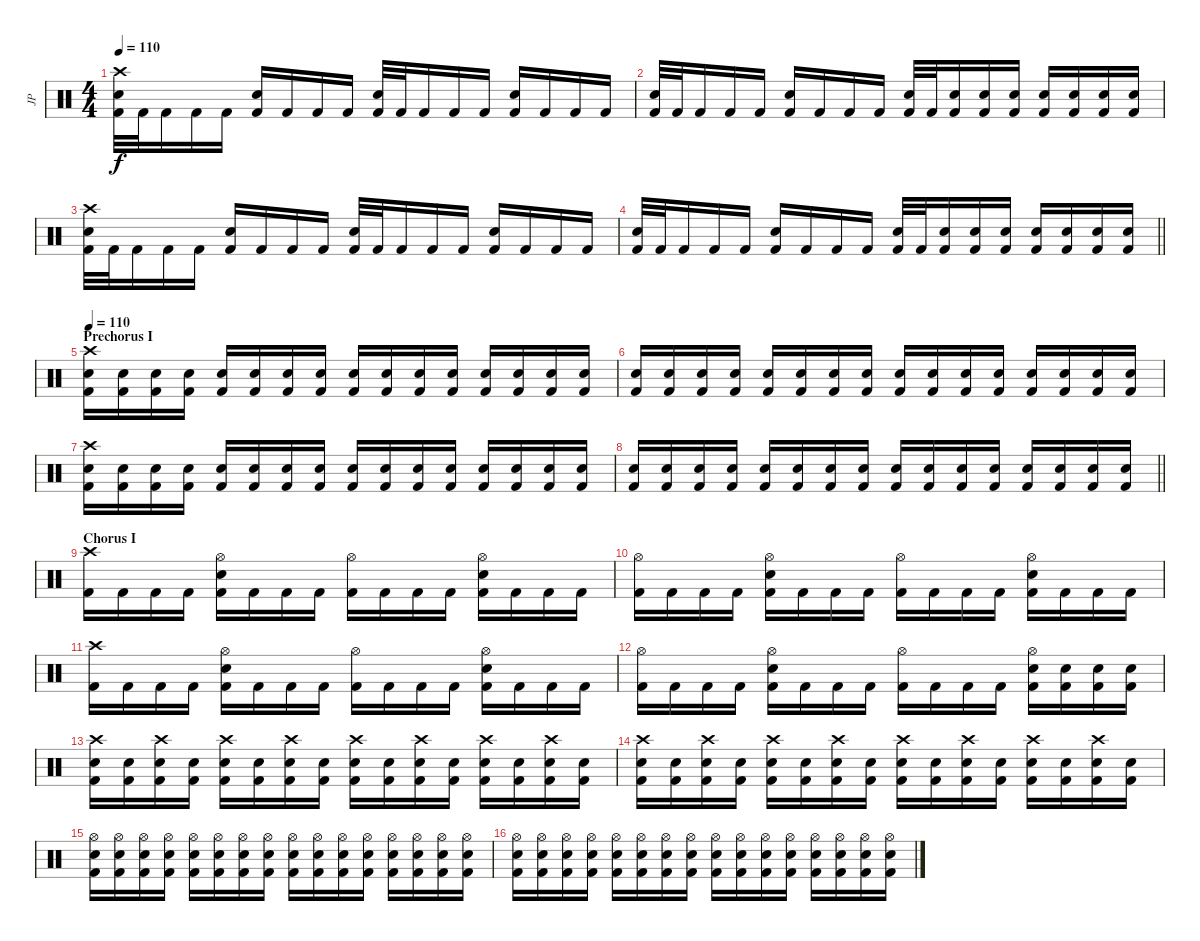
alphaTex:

\track ("JP" "JP") {instrument percussion}
\staff {score}
\articulation defaults
\ts (4 4)
\section ("" "")
\tempo 110
\clef neutral
\ks c
("Crash high (hit)" "Electric Snare (hit)" "Kick (hit) 2").32{dy f} "Kick (hit) 2".32 "Kick (hit) 2".16 "Kick (hit) 2".16 "Kick (hit) 2".16 ("Electric Snare (hit)" "Kick (hit) 2").16 "Kick (hit) 2".16 "Kick (hit) 2".16 "Kick (hit) 2".16 ("Electric Snare (hit)" "Kick (hit) 2").32 "Kick (hit) 2".32 "Kick (hit) 2".16 "Kick (hit) 2".16 "Kick (hit) 2".16 ("Electric Snare (hit)" "Kick (hit) 2").16 "Kick (hit) 2".16 "Kick (hit) 2".16 "Kick (hit) 2".16 |
("Electric Snare (hit)" "Kick (hit) 2").32 "Kick (hit) 2".32 "Kick (hit) 2".16 "Kick (hit) 2".16 "Kick (hit) 2".16 ("Electric Snare (hit)" "Kick (hit) 2").16 "Kick (hit) 2".16 "Kick (hit) 2".16 "Kick (hit) 2".16 ("Electric Snare (hit)" "Kick (hit) 2").32 "Kick (hit) 2".32 ("Electric Snare (hit)" "Kick (hit) 2").16 ("Electric Snare (hit)" "Kick (hit) 2").16 ("Electric Snare (hit)" "Kick (hit) 2").16 ("Electric Snare (hit)" "Kick (hit) 2").16 ("Electric Snare (hit)" "Kick (hit) 2").16 ("Electric Snare (hit)" "Kick (hit) 2").16 ("Electric Snare (hit)" "Kick (hit) 2").16 |
("Crash high (hit)" "Electric Snare (hit)" "Kick (hit) 2").32 "Kick (hit) 2".32 "Kick (hit) 2".16 "Kick (hit) 2".16 "Kick (hit) 2".16 ("Electric Snare (hit)" "Kick (hit) 2").16 "Kick (hit) 2".16 "Kick (hit) 2".16 "Kick (hit) 2".16 ("Electric Snare (hit)" "Kick (hit) 2").32 "Kick (hit) 2".32 "Kick (hit) 2".16 "Kick (hit) 2".16 "Kick (hit) 2".16 ("Electric Snare (hit)" "Kick (hit) 2").16 "Kick (hit) 2".16 "Kick (hit) 2".16 "Kick (hit) 2".16 |
\barLineRight lightlight
("Electric Snare (hit)" "Kick (hit) 2").32 "Kick (hit) 2".32 "Kick (hit) 2".16 "Kick (hit) 2".16 "Kick (hit) 2".16 ("Electric Snare (hit)" "Kick (hit) 2").16 "Kick (hit) 2".16 "Kick (hit) 2".16 "Kick (hit) 2".16 ("Electric Snare (hit)" "Kick (hit) 2").32 "Kick (hit) 2".32 ("Electric Snare (hit)" "Kick (hit) 2").16 ("Electric Snare (hit)" "Kick (hit) 2").16 ("Electric Snare (hit)" "Kick (hit) 2").16 ("Electric Snare (hit)" "Kick (hit) 2").16 ("Electric Snare (hit)" "Kick (hit) 2").16 ("Electric Snare (hit)" "Kick (hit) 2").16 ("Electric Snare (hit)" "Kick (hit) 2").16 |
\section ("" "Prechorus I")
\tempo 110
("Crash high (hit)" "Electric Snare (hit)" "Kick (hit) 2").16 ("Electric Snare (hit)" "Kick (hit) 2").16 ("Electric Snare (hit)" "Kick (hit) 2").16 ("Electric Snare (hit)" "Kick (hit) 2").16 ("Electric Snare (hit)" "Kick (hit) 2").16 ("Electric Snare (hit)" "Kick (hit) 2").16 ("Electric Snare (hit)" "Kick (hit) 2").16 ("Electric Snare (hit)" "Kick (hit) 2").16 ("Electric Snare (hit)" "Kick (hit) 2").16 ("Electric Snare (hit)" "Kick (hit) 2").16 ("Electric Snare (hit)" "Kick (hit) 2").16 ("Electric Snare (hit)" "Kick (hit) 2").16 ("Electric Snare (hit)" "Kick (hit) 2").16 ("Electric Snare (hit)" "Kick (hit) 2").16 ("Electric Snare (hit)" "Kick (hit) 2").16 ("Electric Snare (hit)" "Kick (hit) 2").16 |
("Electric Snare (hit)" "Kick (hit) 2").16 ("Electric Snare (hit)" "Kick (hit) 2").16 ("Electric Snare (hit)" "Kick (hit) 2").16 ("Electric Snare (hit)" "Kick (hit) 2").16 ("Electric Snare (hit)" "Kick (hit) 2").16 ("Electric Snare (hit)" "Kick (hit) 2").16 ("Electric Snare (hit)" "Kick (hit) 2").16 ("Electric Snare (hit)" "Kick (hit) 2").16 ("Electric Snare (hit)" "Kick (hit) 2").16 ("Electric Snare (hit)" "Kick (hit) 2").16 ("Electric Snare (hit)" "Kick (hit) 2").16 ("Electric Snare (hit)" "Kick (hit) 2").16 ("Electric Snare (hit)" "Kick (hit) 2").16 ("Electric Snare (hit)" "Kick (hit) 2").16 ("Electric Snare (hit)" "Kick (hit) 2").16 ("Electric Snare (hit)" "Kick (hit) 2").16 |
("Crash high (hit)" "Electric Snare (hit)" "Kick (hit) 2").16 ("Electric Snare (hit)" "Kick (hit) 2").16 ("Electric Snare (hit)" "Kick (hit) 2").16 ("Electric Snare (hit)" "Kick (hit) 2").16 ("Electric Snare (hit)" "Kick (hit) 2").16 ("Electric Snare (hit)" "Kick (hit) 2").16 ("Electric Snare (hit)" "Kick (hit) 2").16 ("Electric Snare (hit)" "Kick (hit) 2").16 ("Electric Snare (hit)" "Kick (hit) 2").16 ("Electric Snare (hit)" "Kick (hit) 2").16 ("Electric Snare (hit)" "Kick (hit) 2").16 ("Electric Snare (hit)" "Kick (hit) 2").16 ("Electric Snare (hit)" "Kick (hit) 2").16 ("Electric Snare (hit)" "Kick (hit) 2").16 ("Electric Snare (hit)" "Kick (hit) 2").16 ("Electric Snare (hit)" "Kick (hit) 2").16 |
\barLineRight lightlight
("Electric Snare (hit)" "Kick (hit) 2").16 ("Electric Snare (hit)" "Kick (hit) 2").16 ("Electric Snare (hit)" "Kick (hit) 2").16 ("Electric Snare (hit)" "Kick (hit) 2").16 ("Electric Snare (hit)" "Kick (hit) 2").16 ("Electric Snare (hit)" "Kick (hit) 2").16 ("Electric Snare (hit)" "Kick (hit) 2").16 ("Electric Snare (hit)" "Kick (hit) 2").16 ("Electric Snare (hit)" "Kick (hit) 2").16 ("Electric Snare (hit)" "Kick (hit) 2").16 ("Electric Snare (hit)" "Kick (hit) 2").16 ("Electric Snare (hit)" "Kick (hit) 2").16 ("Electric Snare (hit)" "Kick (hit) 2").16 ("Electric Snare (hit)" "Kick (hit) 2").16 ("Electric Snare (hit)" "Kick (hit) 2").16 ("Electric Snare (hit)" "Kick (hit) 2").16 |
\section ("" "Chorus I")
("Crash high (hit)" "Kick (hit) 2").16 "Kick (hit) 2".16 "Kick (hit) 2".16 "Kick (hit) 2".16 ("Hi-Hat (open)" "Electric Snare (hit)" "Kick (hit) 2").16 "Kick (hit) 2".16 "Kick (hit) 2".16 "Kick (hit) 2".16 ("Hi-Hat (open)" "Kick (hit) 2").16 "Kick (hit) 2".16 "Kick (hit) 2".16 "Kick (hit) 2".16 ("Hi-Hat (open)" "Electric Snare (hit)" "Kick (hit) 2").16 "Kick (hit) 2".16 "Kick (hit) 2".16 "Kick (hit) 2".16 |
("Hi-Hat (open)" "Kick (hit) 2").16 "Kick (hit) 2".16 "Kick (hit) 2".16 "Kick (hit) 2".16 ("Hi-Hat (open)" "Electric Snare (hit)" "Kick (hit) 2").16 "Kick (hit) 2".16 "Kick (hit) 2".16 "Kick (hit) 2".16 ("Hi-Hat (open)" "Kick (hit) 2").16 "Kick (hit) 2".16 "Kick (hit) 2".16 "Kick (hit) 2".16 ("Hi-Hat (open)" "Electric Snare (hit)" "Kick (hit) 2").16 "Kick (hit) 2".16 "Kick (hit) 2".16 "Kick (hit) 2".16 |
("Crash high (hit)" "Kick (hit) 2").16 "Kick (hit) 2".16 "Kick (hit) 2".16 "Kick (hit) 2".16 ("Hi-Hat (open)" "Electric Snare (hit)" "Kick (hit) 2").16 "Kick (hit) 2".16 "Kick (hit) 2".16 "Kick (hit) 2".16 ("Hi-Hat (open)" "Kick (hit) 2").16 "Kick (hit) 2".16 "Kick (hit) 2".16 "Kick (hit) 2".16 ("Hi-Hat (open)" "Electric Snare (hit)" "Kick (hit) 2").16 "Kick (hit) 2".16 "Kick (hit) 2".16 "Kick (hit) 2".16 |
("Hi-Hat (open)" "Kick (hit) 2").16 "Kick (hit) 2".16 "Kick (hit) 2".16 "Kick (hit) 2".16 ("Hi-Hat (open)" "Electric Snare (hit)" "Kick (hit) 2").16 "Kick (hit) 2".16 "Kick (hit) 2".16 "Kick (hit) 2".16 ("Hi-Hat (open)" "Kick (hit) 2").16 "Kick (hit) 2".16 "Kick (hit) 2".16 "Kick (hit) 2".16 ("Hi-Hat (open)" "Electric Snare (hit)" "Kick (hit) 2").16 ("Electric Snare (hit)" "Kick (hit) 2").16 ("Electric Snare (hit)" "Kick (hit) 2").16 ("Electric Snare (hit)" "Kick (hit) 2").16 |
("Crash high (hit)" "Electric Snare (hit)" "Kick (hit) 2").16 ("Electric Snare (hit)" "Kick (hit) 2").16 ("Crash high (hit)" "Electric Snare (hit)" "Kick (hit) 2").16 ("Electric Snare (hit)" "Kick (hit) 2").16 ("Crash high (hit)" "Electric Snare (hit)" "Kick (hit) 2").16 ("Electric Snare (hit)" "Kick (hit) 2").16 ("Crash high (hit)" "Electric Snare (hit)" "Kick (hit) 2").16 ("Electric Snare (hit)" "Kick (hit) 2").16 ("Crash high (hit)" "Electric Snare (hit)" "Kick (hit) 2").16 ("Electric Snare (hit)" "Kick (hit) 2").16 ("Crash high (hit)" "Electric Snare (hit)" "Kick (hit) 2").16 ("Electric Snare (hit)" "Kick (hit) 2").16 ("Crash high (hit)" "Electric Snare (hit)" "Kick (hit) 2").16 ("Electric Snare (hit)" "Kick (hit) 2").16 ("Crash high (hit)" "Electric Snare (hit)" "Kick (hit) 2").16 ("Electric Snare (hit)" "Kick (hit) 2").16 |
("Crash high (hit)" "Electric Snare (hit)" "Kick (hit) 2").16 ("Electric Snare (hit)" "Kick (hit) 2").16 ("Crash high (hit)" "Electric Snare (hit)" "Kick (hit) 2").16 ("Electric Snare (hit)" "Kick (hit) 2").16 ("Crash high (hit)" "Electric Snare (hit)" "Kick (hit) 2").16 ("Electric Snare (hit)" "Kick (hit) 2").16 ("Crash high (hit)" "Electric Snare (hit)" "Kick (hit) 2").16 ("Electric Snare (hit)" "Kick (hit) 2").16 ("Crash high (hit)" "Electric Snare (hit)" "Kick (hit) 2").16 ("Electric Snare (hit)" "Kick (hit) 2").16 ("Crash high (hit)" "Electric Snare (hit)" "Kick (hit) 2").16 ("Electric Snare (hit)" "Kick (hit) 2").16 ("Crash high (hit)" "Electric Snare (hit)" "Kick (hit) 2").16 ("Electric Snare (hit)" "Kick (hit) 2").16 ("Crash high (hit)" "Electric Snare (hit)" "Kick (hit) 2").16 ("Electric Snare (hit)" "Kick (hit) 2").16 |
("Hi-Hat (open)" "Electric Snare (hit)" "Kick (hit) 2").16 ("Hi-Hat (open)" "Electric Snare (hit)" "Kick (hit) 2").16 ("Hi-Hat (open)" "Electric Snare (hit)" "Kick (hit) 2").16 ("Hi-Hat (open)" "Electric Snare (hit)" "Kick (hit) 2").16 ("Hi-Hat (open)" "Electric Snare (hit)" "Kick (hit) 2").16 ("Hi-Hat (open)" "Electric Snare (hit)" "Kick (hit) 2").16 ("Hi-Hat (open)" "Electric Snare (hit)" "Kick (hit) 2").16 ("Hi-Hat (open)" "Electric Snare (hit)" "Kick (hit) 2").16 ("Hi-Hat (open)" "Electric Snare (hit)" "Kick (hit) 2").16 ("Hi-Hat (open)" "Electric Snare (hit)" "Kick (hit) 2").16 ("Hi-Hat (open)" "Electric Snare (hit)" "Kick (hit) 2").16 ("Hi-Hat (open)" "Electric Snare (hit)" "Kick (hit) 2").16 ("Hi-Hat (open)" "Electric Snare (hit)" "Kick (hit) 2").16 ("Hi-Hat (open)" "Electric Snare (hit)" "Kick (hit) 2").16 ("Hi-Hat (open)" "Electric Snare (hit)" "Kick (hit) 2").16 ("Hi-Hat (open)" "Electric Snare (hit)" "Kick (hit) 2").16 |
("Hi-Hat (open)" "Electric Snare (hit)" "Kick (hit) 2").16 ("Hi-Hat (open)" "Electric Snare (hit)" "Kick (hit) 2").16 ("Hi-Hat (open)" "Electric Snare (hit)" "Kick (hit) 2").16 ("Hi-Hat (open)" "Electric Snare (hit)" "Kick (hit) 2").16 ("Hi-Hat (open)" "Electric Snare (hit)" "Kick (hit) 2").16 ("Hi-Hat (open)" "Electric Snare (hit)" "Kick (hit) 2").16 ("Hi-Hat (open)" "Electric Snare (hit)" "Kick (hit) 2").16 ("Hi-Hat (open)" "Electric Snare (hit)" "Kick (hit) 2").16 ("Hi-Hat (open)" "Electric Snare (hit)" "Kick (hit) 2").16 ("Hi-Hat (open)" "Electric Snare (hit)" "Kick (hit) 2").16 ("Hi-Hat (open)" "Electric Snare (hit)" "Kick (hit) 2").16 ("Hi-Hat (open)" "Electric Snare (hit)" "Kick (hit) 2").16 ("Hi-Hat (open)" "Electric Snare (hit)" "Kick (hit) 2").16 ("Hi-Hat (open)" "Electric Snare (hit)" "Kick (hit) 2").16 ("Hi-Hat (open)" "Electric Snare (hit)" "Kick (hit) 2").16 ("Hi-Hat (open)" "Electric Snare (hit)" "Kick (hit) 2").16
